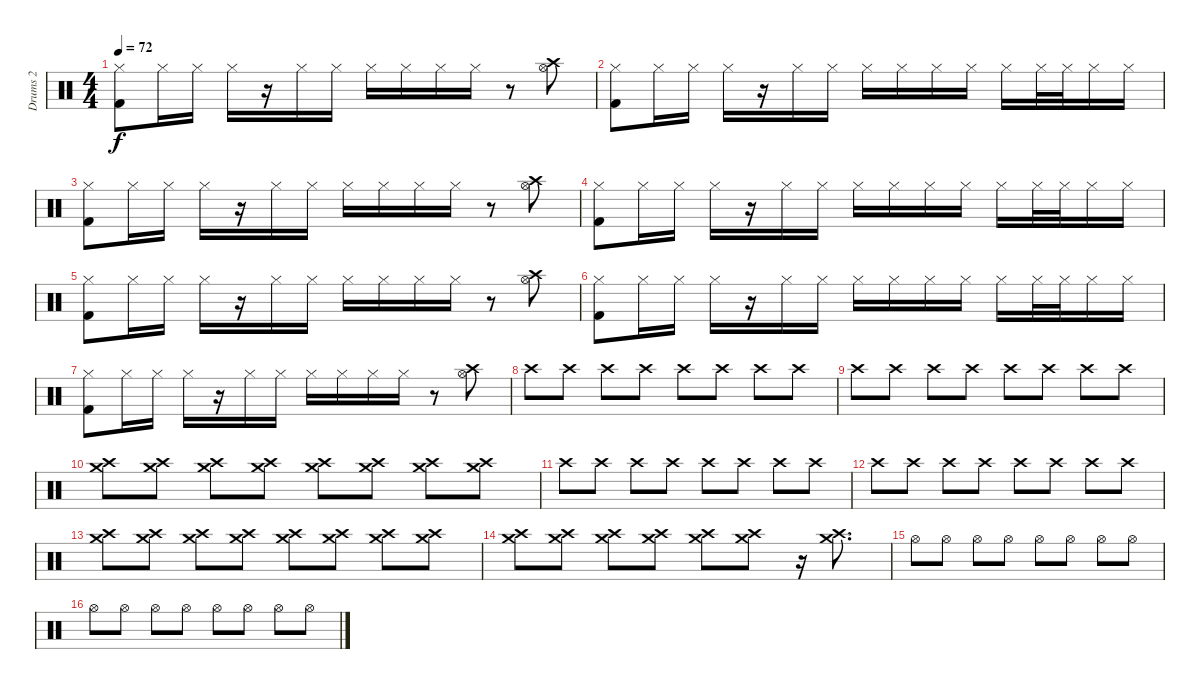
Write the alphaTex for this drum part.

\track ("Drums 2" "Drums 2") {instrument percussion}
\staff {score}
\articulation defaults
\ts (4 4)
\tempo 72
\clef neutral
\ks c
("Hi-Hat (closed)" "Kick (hit) 2").8{dy f} "Hi-Hat (closed)".16 "Hi-Hat (closed)".16 "Hi-Hat (closed)".16 r.16 "Hi-Hat (closed)".16 "Hi-Hat (closed)".16 "Hi-Hat (closed)".16 "Hi-Hat (closed)".16 "Hi-Hat (closed)".16 "Hi-Hat (closed)".16 r.8 ("Hi-Hat (open)" "Crash high (hit)").8 |
("Hi-Hat (closed)" "Kick (hit) 2").8 "Hi-Hat (closed)".16 "Hi-Hat (closed)".16 "Hi-Hat (closed)".16 r.16 "Hi-Hat (closed)".16 "Hi-Hat (closed)".16 "Hi-Hat (closed)".16 "Hi-Hat (closed)".16 "Hi-Hat (closed)".16 "Hi-Hat (closed)".16 "Hi-Hat (closed)".16 "Hi-Hat (closed)".32 "Hi-Hat (closed)".32 "Hi-Hat (closed)".16 "Hi-Hat (closed)".16 |
("Hi-Hat (closed)" "Kick (hit) 2").8 "Hi-Hat (closed)".16 "Hi-Hat (closed)".16 "Hi-Hat (closed)".16 r.16 "Hi-Hat (closed)".16 "Hi-Hat (closed)".16 "Hi-Hat (closed)".16 "Hi-Hat (closed)".16 "Hi-Hat (closed)".16 "Hi-Hat (closed)".16 r.8 ("Hi-Hat (open)" "Crash high (hit)").8 |
("Hi-Hat (closed)" "Kick (hit) 2").8 "Hi-Hat (closed)".16 "Hi-Hat (closed)".16 "Hi-Hat (closed)".16 r.16 "Hi-Hat (closed)".16 "Hi-Hat (closed)".16 "Hi-Hat (closed)".16 "Hi-Hat (closed)".16 "Hi-Hat (closed)".16 "Hi-Hat (closed)".16 "Hi-Hat (closed)".16 "Hi-Hat (closed)".32 "Hi-Hat (closed)".32 "Hi-Hat (closed)".16 "Hi-Hat (closed)".16 |
("Hi-Hat (closed)" "Kick (hit) 2").8 "Hi-Hat (closed)".16 "Hi-Hat (closed)".16 "Hi-Hat (closed)".16 r.16 "Hi-Hat (closed)".16 "Hi-Hat (closed)".16 "Hi-Hat (closed)".16 "Hi-Hat (closed)".16 "Hi-Hat (closed)".16 "Hi-Hat (closed)".16 r.8 ("Hi-Hat (open)" "Crash high (hit)").8 |
("Hi-Hat (closed)" "Kick (hit) 2").8 "Hi-Hat (closed)".16 "Hi-Hat (closed)".16 "Hi-Hat (closed)".16 r.16 "Hi-Hat (closed)".16 "Hi-Hat (closed)".16 "Hi-Hat (closed)".16 "Hi-Hat (closed)".16 "Hi-Hat (closed)".16 "Hi-Hat (closed)".16 "Hi-Hat (closed)".16 "Hi-Hat (closed)".32 "Hi-Hat (closed)".32 "Hi-Hat (closed)".16 "Hi-Hat (closed)".16 |
("Hi-Hat (closed)" "Kick (hit) 2").8 "Hi-Hat (closed)".16 "Hi-Hat (closed)".16 "Hi-Hat (closed)".16 r.16 "Hi-Hat (closed)".16 "Hi-Hat (closed)".16 "Hi-Hat (closed)".16 "Hi-Hat (closed)".16 "Hi-Hat (closed)".16 "Hi-Hat (closed)".16 r.8 ("Hi-Hat (open)" "Crash high (hit)").8 |
"Crash high (hit)".8{volume 16 balance 8} "Crash high (hit)".8 "Crash high (hit)".8 "Crash high (hit)".8 "Crash high (hit)".8 "Crash high (hit)".8 "Crash high (hit)".8 "Crash high (hit)".8 |
"Crash high (hit)".8 "Crash high (hit)".8 "Crash high (hit)".8 "Crash high (hit)".8 "Crash high (hit)".8 "Crash high (hit)".8 "Crash high (hit)".8 "Crash high (hit)".8 |
("Crash high (hit)" "Crash medium (hit)").8 ("Crash high (hit)" "Crash medium (hit)").8 ("Crash high (hit)" "Crash medium (hit)").8 ("Crash high (hit)" "Crash medium (hit)").8 ("Crash high (hit)" "Crash medium (hit)").8 ("Crash high (hit)" "Crash medium (hit)").8 ("Crash high (hit)" "Crash medium (hit)").8 ("Crash high (hit)" "Crash medium (hit)").8 |
"Crash high (hit)".8 "Crash high (hit)".8 "Crash high (hit)".8 "Crash high (hit)".8 "Crash high (hit)".8 "Crash high (hit)".8 "Crash high (hit)".8 "Crash high (hit)".8 |
"Crash high (hit)".8 "Crash high (hit)".8 "Crash high (hit)".8 "Crash high (hit)".8 "Crash high (hit)".8 "Crash high (hit)".8 "Crash high (hit)".8 "Crash high (hit)".8 |
("Crash high (hit)" "Crash medium (hit)").8 ("Crash high (hit)" "Crash medium (hit)").8 ("Crash high (hit)" "Crash medium (hit)").8 ("Crash high (hit)" "Crash medium (hit)").8 ("Crash high (hit)" "Crash medium (hit)").8 ("Crash high (hit)" "Crash medium (hit)").8 ("Crash high (hit)" "Crash medium (hit)").8 ("Crash high (hit)" "Crash medium (hit)").8 |
("Crash high (hit)" "Crash medium (hit)").8 ("Crash high (hit)" "Crash medium (hit)").8 ("Crash high (hit)" "Crash medium (hit)").8 ("Crash high (hit)" "Crash medium (hit)").8 ("Crash high (hit)" "Crash medium (hit)").8 ("Crash high (hit)" "Crash medium (hit)").8 r.16 ("Crash high (hit)" "Crash medium (hit)").8{d} |
"Hi-Hat (open)".8{volume 10} "Hi-Hat (open)".8 "Hi-Hat (open)".8 "Hi-Hat (open)".8 "Hi-Hat (open)".8 "Hi-Hat (open)".8 "Hi-Hat (open)".8 "Hi-Hat (open)".8 |
"Hi-Hat (open)".8 "Hi-Hat (open)".8 "Hi-Hat (open)".8 "Hi-Hat (open)".8 "Hi-Hat (open)".8 "Hi-Hat (open)".8 "Hi-Hat (open)".8 "Hi-Hat (open)".8
